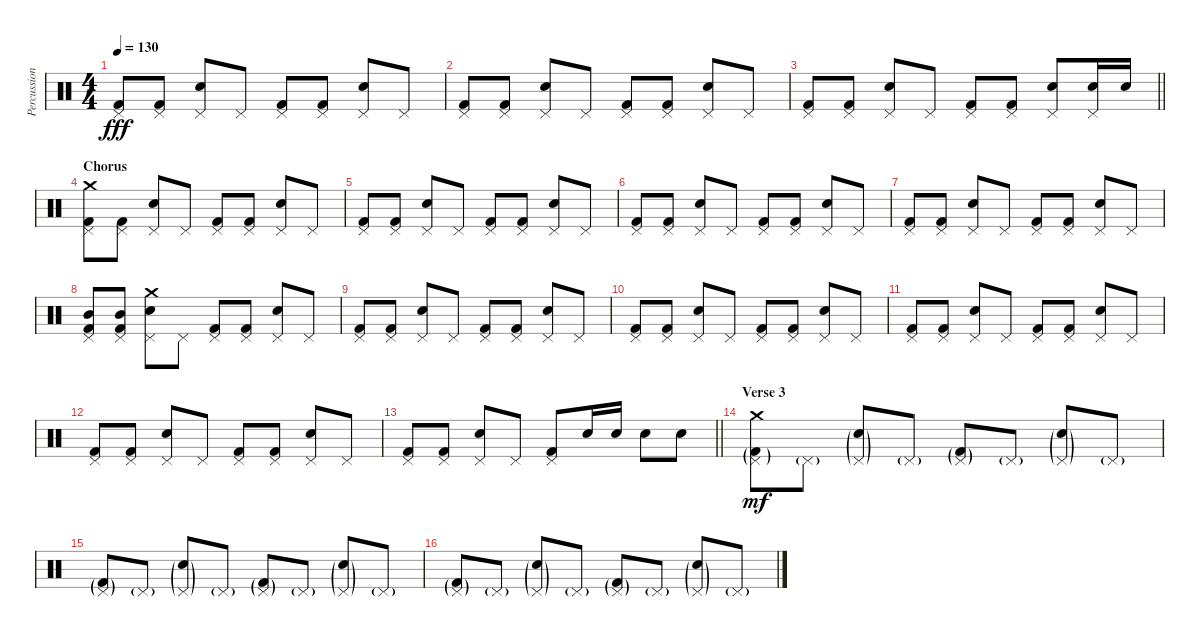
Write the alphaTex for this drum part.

\track ("Percussion" "Percussion") {instrument percussion}
\staff {score}
\articulation defaults
\ts (4 4)
\tempo 130
\clef neutral
\ks c
("Pedal Hi-Hat (hit)" "Kick (hit) 2").8{dy fff} ("Pedal Hi-Hat (hit)" "Kick (hit) 2").8 ("Pedal Hi-Hat (hit)" "Electric Snare (hit)").8 "Pedal Hi-Hat (hit)".8 ("Pedal Hi-Hat (hit)" "Kick (hit) 2").8 ("Pedal Hi-Hat (hit)" "Kick (hit) 2").8 ("Pedal Hi-Hat (hit)" "Electric Snare (hit)").8 "Pedal Hi-Hat (hit)".8 |
("Pedal Hi-Hat (hit)" "Kick (hit) 2").8 ("Pedal Hi-Hat (hit)" "Kick (hit) 2").8 ("Pedal Hi-Hat (hit)" "Electric Snare (hit)").8 "Pedal Hi-Hat (hit)".8 ("Pedal Hi-Hat (hit)" "Kick (hit) 2").8 ("Pedal Hi-Hat (hit)" "Kick (hit) 2").8 ("Pedal Hi-Hat (hit)" "Electric Snare (hit)").8 "Pedal Hi-Hat (hit)".8 |
\barLineRight lightlight
("Pedal Hi-Hat (hit)" "Kick (hit) 2").8 ("Pedal Hi-Hat (hit)" "Kick (hit) 2").8 ("Pedal Hi-Hat (hit)" "Electric Snare (hit)").8 "Pedal Hi-Hat (hit)".8 ("Pedal Hi-Hat (hit)" "Kick (hit) 2").8 ("Pedal Hi-Hat (hit)" "Kick (hit) 2").8 ("Pedal Hi-Hat (hit)" "Electric Snare (hit)").8 ("Pedal Hi-Hat (hit)" "Electric Snare (hit)").16 "Electric Snare (hit)".16 |
\section ("" "Chorus")
("Pedal Hi-Hat (hit)" "Crash medium (hit)" "Kick (hit) 2").8 ("Pedal Hi-Hat (hit)" "Kick (hit) 2").8 ("Pedal Hi-Hat (hit)" "Electric Snare (hit)").8 "Pedal Hi-Hat (hit)".8 ("Pedal Hi-Hat (hit)" "Kick (hit) 2").8 ("Pedal Hi-Hat (hit)" "Kick (hit) 2").8 ("Pedal Hi-Hat (hit)" "Electric Snare (hit)").8 "Pedal Hi-Hat (hit)".8 |
("Pedal Hi-Hat (hit)" "Kick (hit) 2").8 ("Pedal Hi-Hat (hit)" "Kick (hit) 2").8 ("Pedal Hi-Hat (hit)" "Electric Snare (hit)").8 "Pedal Hi-Hat (hit)".8 ("Pedal Hi-Hat (hit)" "Kick (hit) 2").8 ("Pedal Hi-Hat (hit)" "Kick (hit) 2").8 ("Pedal Hi-Hat (hit)" "Electric Snare (hit)").8 "Pedal Hi-Hat (hit)".8 |
("Pedal Hi-Hat (hit)" "Kick (hit) 2").8 ("Pedal Hi-Hat (hit)" "Kick (hit) 2").8 ("Pedal Hi-Hat (hit)" "Electric Snare (hit)").8 "Pedal Hi-Hat (hit)".8 ("Pedal Hi-Hat (hit)" "Kick (hit) 2").8 ("Pedal Hi-Hat (hit)" "Kick (hit) 2").8 ("Pedal Hi-Hat (hit)" "Electric Snare (hit)").8 "Pedal Hi-Hat (hit)".8 |
("Pedal Hi-Hat (hit)" "Kick (hit) 2").8 ("Pedal Hi-Hat (hit)" "Kick (hit) 2").8 ("Pedal Hi-Hat (hit)" "Electric Snare (hit)").8 "Pedal Hi-Hat (hit)".8 ("Pedal Hi-Hat (hit)" "Kick (hit) 2").8 ("Pedal Hi-Hat (hit)" "Kick (hit) 2").8 ("Pedal Hi-Hat (hit)" "Electric Snare (hit)").8 "Pedal Hi-Hat (hit)".8 |
("Pedal Hi-Hat (hit)" "Mid Tom (hit)" "Kick (hit) 2").8 ("Pedal Hi-Hat (hit)" "Mid Tom (hit)" "Kick (hit) 2").8 ("Pedal Hi-Hat (hit)" "Crash medium (hit)" "Electric Snare (hit)").8 "Pedal Hi-Hat (hit)".8 ("Pedal Hi-Hat (hit)" "Kick (hit) 2").8 ("Pedal Hi-Hat (hit)" "Kick (hit) 2").8 ("Pedal Hi-Hat (hit)" "Electric Snare (hit)").8 "Pedal Hi-Hat (hit)".8 |
("Pedal Hi-Hat (hit)" "Kick (hit) 2").8 ("Pedal Hi-Hat (hit)" "Kick (hit) 2").8 ("Pedal Hi-Hat (hit)" "Electric Snare (hit)").8 "Pedal Hi-Hat (hit)".8 ("Pedal Hi-Hat (hit)" "Kick (hit) 2").8 ("Pedal Hi-Hat (hit)" "Kick (hit) 2").8 ("Pedal Hi-Hat (hit)" "Electric Snare (hit)").8 "Pedal Hi-Hat (hit)".8 |
("Pedal Hi-Hat (hit)" "Kick (hit) 2").8 ("Pedal Hi-Hat (hit)" "Kick (hit) 2").8 ("Pedal Hi-Hat (hit)" "Electric Snare (hit)").8 "Pedal Hi-Hat (hit)".8 ("Pedal Hi-Hat (hit)" "Kick (hit) 2").8 ("Pedal Hi-Hat (hit)" "Kick (hit) 2").8 ("Pedal Hi-Hat (hit)" "Electric Snare (hit)").8 "Pedal Hi-Hat (hit)".8 |
("Pedal Hi-Hat (hit)" "Kick (hit) 2").8 ("Pedal Hi-Hat (hit)" "Kick (hit) 2").8 ("Pedal Hi-Hat (hit)" "Electric Snare (hit)").8 "Pedal Hi-Hat (hit)".8 ("Pedal Hi-Hat (hit)" "Kick (hit) 2").8 ("Pedal Hi-Hat (hit)" "Kick (hit) 2").8 ("Pedal Hi-Hat (hit)" "Electric Snare (hit)").8 "Pedal Hi-Hat (hit)".8 |
("Pedal Hi-Hat (hit)" "Kick (hit) 2").8 ("Pedal Hi-Hat (hit)" "Kick (hit) 2").8 ("Pedal Hi-Hat (hit)" "Electric Snare (hit)").8 "Pedal Hi-Hat (hit)".8 ("Pedal Hi-Hat (hit)" "Kick (hit) 2").8 ("Pedal Hi-Hat (hit)" "Kick (hit) 2").8 ("Pedal Hi-Hat (hit)" "Electric Snare (hit)").8 "Pedal Hi-Hat (hit)".8 |
\barLineRight lightlight
("Pedal Hi-Hat (hit)" "Kick (hit) 2").8 ("Pedal Hi-Hat (hit)" "Kick (hit) 2").8 ("Pedal Hi-Hat (hit)" "Electric Snare (hit)").8 "Pedal Hi-Hat (hit)".8 ("Pedal Hi-Hat (hit)" "Kick (hit) 2").8 "Electric Snare (hit)".16 "Electric Snare (hit)".16 "Electric Snare (hit)".8 "Electric Snare (hit)".8 |
\section ("" "Verse 3")
("Pedal Hi-Hat (hit)"{g} "Crash medium (hit)" "Kick (hit) 2"{g}).8{dy mf} "Pedal Hi-Hat (hit)"{g}.8 ("Pedal Hi-Hat (hit)"{g} "Electric Snare (hit)"{g}).8 "Pedal Hi-Hat (hit)"{g}.8 ("Pedal Hi-Hat (hit)"{g} "Kick (hit) 2"{g}).8 "Pedal Hi-Hat (hit)"{g}.8 ("Pedal Hi-Hat (hit)"{g} "Electric Snare (hit)"{g}).8 "Pedal Hi-Hat (hit)"{g}.8 |
("Pedal Hi-Hat (hit)"{g} "Kick (hit) 2"{g}).8 "Pedal Hi-Hat (hit)"{g}.8 ("Pedal Hi-Hat (hit)"{g} "Electric Snare (hit)"{g}).8 "Pedal Hi-Hat (hit)"{g}.8 ("Pedal Hi-Hat (hit)"{g} "Kick (hit) 2"{g}).8 "Pedal Hi-Hat (hit)"{g}.8 ("Pedal Hi-Hat (hit)"{g} "Electric Snare (hit)"{g}).8 "Pedal Hi-Hat (hit)"{g}.8 |
("Pedal Hi-Hat (hit)"{g} "Kick (hit) 2"{g}).8 "Pedal Hi-Hat (hit)"{g}.8 ("Pedal Hi-Hat (hit)"{g} "Electric Snare (hit)"{g}).8 "Pedal Hi-Hat (hit)"{g}.8 ("Pedal Hi-Hat (hit)"{g} "Kick (hit) 2"{g}).8 "Pedal Hi-Hat (hit)"{g}.8 ("Pedal Hi-Hat (hit)"{g} "Electric Snare (hit)"{g}).8 "Pedal Hi-Hat (hit)"{g}.8
